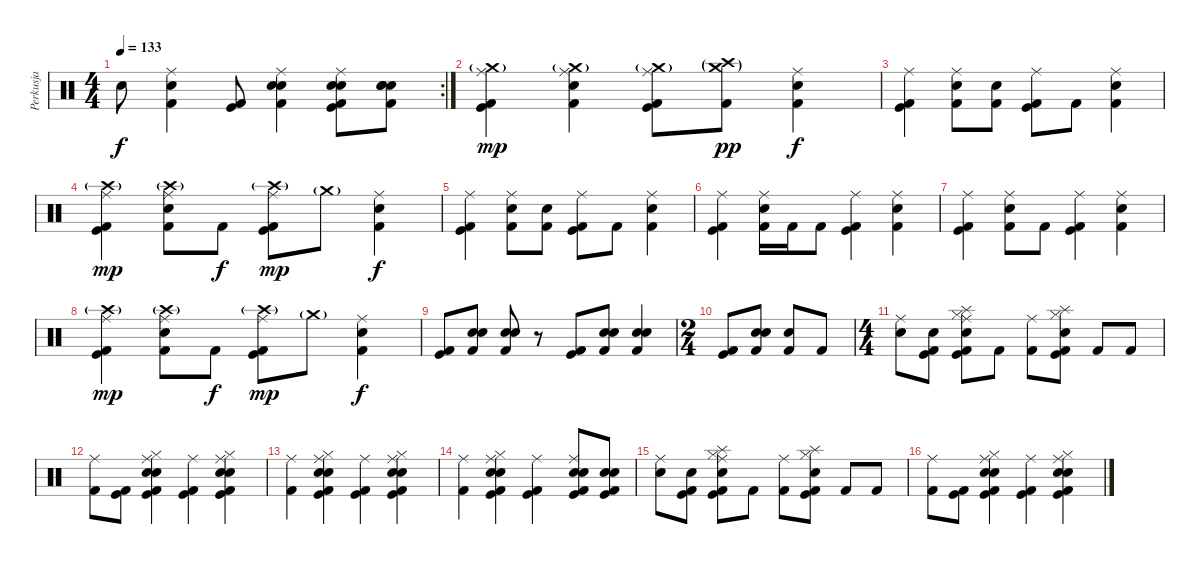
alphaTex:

\track ("Perkusja" "Perkusja") {instrument percussion}
\staff {score}
\articulation defaults
\rc 2
\ts (4 4)
\tempo 133
\clef neutral
\ks c "Snare (hit)"{t}.8{dy f}
("Ride (middle)" "Electric Snare (hit)" "Kick (hit) 2").4 ("Kick (hit)" "Kick (hit) 2").8 ("Ride (middle)" "Electric Snare (hit)" "Electric Snare (hit)" "Kick (hit) 2").4 ("Ride (middle)" "Electric Snare (hit)" "Electric Snare (hit)" "Kick (hit)" "Kick (hit) 2").8 ("Electric Snare (hit)" "Electric Snare (hit)" "Electric Snare (hit)" "Kick (hit) 2").8 |
("Ride (middle)" "Crash medium (hit)"{g} "Kick (hit)" "Kick (hit) 2").4{dy mp} ("Ride (middle)" "Crash medium (hit)"{g} "Electric Snare (hit)" "Kick (hit) 2").4 ("Ride (middle)" "Crash medium (hit)"{g} "Kick (hit)" "Kick (hit) 2").8 ("Crash high (hit)"{g} "Crash medium (hit)"{g} "Kick (hit) 2").8{dy pp} ("Ride (middle)" "Electric Snare (hit)" "Kick (hit) 2").4{dy f} |
("Ride (middle)" "Kick (hit)" "Kick (hit) 2").4 ("Ride (middle)" "Electric Snare (hit)" "Kick (hit) 2").8 ("Electric Snare (hit)" "Kick (hit) 2").8 ("Ride (middle)" "Kick (hit)" "Kick (hit) 2").8 "Kick (hit) 2".8 ("Ride (middle)" "Electric Snare (hit)" "Kick (hit) 2").4 |
("Ride (middle)" "Crash high (hit)"{g} "Kick (hit)" "Kick (hit) 2").4{dy mp} ("Ride (middle)" "Crash high (hit)"{g} "Electric Snare (hit)" "Kick (hit) 2").8 "Kick (hit) 2".8{dy f} ("Ride (middle)" "Crash high (hit)"{g} "Kick (hit)" "Kick (hit) 2").8{dy mp} "Crash medium (hit)"{g}.8 ("Ride (middle)" "Electric Snare (hit)" "Kick (hit) 2").4{dy f} |
("Ride (middle)" "Kick (hit)" "Kick (hit) 2").4 ("Ride (middle)" "Electric Snare (hit)" "Kick (hit) 2").8 ("Electric Snare (hit)" "Kick (hit) 2").8 ("Ride (middle)" "Kick (hit)" "Kick (hit) 2").8 "Kick (hit) 2".8 ("Ride (middle)" "Electric Snare (hit)" "Kick (hit) 2").4 |
("Ride (middle)" "Kick (hit)" "Kick (hit) 2").4 ("Ride (middle)" "Electric Snare (hit)" "Kick (hit) 2").16 "Kick (hit) 2".16 "Kick (hit) 2".8 ("Ride (middle)" "Kick (hit)" "Kick (hit) 2").4 ("Ride (middle)" "Electric Snare (hit)" "Kick (hit) 2").4 |
("Ride (middle)" "Kick (hit)" "Kick (hit) 2").4 ("Ride (middle)" "Electric Snare (hit)" "Kick (hit) 2").8 "Kick (hit) 2".8 ("Ride (middle)" "Kick (hit)" "Kick (hit) 2").4 ("Ride (middle)" "Electric Snare (hit)" "Kick (hit) 2").4 |
("Ride (middle)" "Crash high (hit)"{g} "Kick (hit)" "Kick (hit) 2").4{dy mp} ("Ride (middle)" "Crash high (hit)"{g} "Electric Snare (hit)" "Kick (hit) 2").8 "Kick (hit) 2".8{dy f} ("Ride (middle)" "Crash high (hit)"{g} "Kick (hit)" "Kick (hit) 2").8{dy mp} "Crash medium (hit)"{g}.8 ("Ride (middle)" "Electric Snare (hit)" "Kick (hit) 2").4{dy f} |
("Kick (hit)" "Kick (hit) 2").8 ("Electric Snare (hit)" "Electric Snare (hit)" "Kick (hit) 2").8 ("Electric Snare (hit)" "Electric Snare (hit)" "Kick (hit) 2").8 r.8 ("Kick (hit)" "Kick (hit) 2").8 ("Electric Snare (hit)" "Electric Snare (hit)" "Kick (hit) 2").8 ("Electric Snare (hit)" "Electric Snare (hit)" "Kick (hit) 2").4 |
\ts (2 4)
("Kick (hit) 2" "Kick (hit)").8 ("Electric Snare (hit)" "Electric Snare (hit)" "Kick (hit) 2").8 ("Electric Snare (hit)" "Kick (hit) 2").8 "Kick (hit) 2".8 |
\ts (4 4)
("Ride (middle)" "Electric Snare (hit)").8 ("Electric Snare (hit)" "Kick (hit)" "Kick (hit) 2").8 ("Ride (middle)" "Splash (hit)" "Hi-Hat (closed)" "Kick (hit)" "Snare (hit) 2" "Kick (hit) 2").8 "Kick (hit) 2".8 ("Ride (middle)" "Kick (hit) 2").8 ("Splash (hit)" "Hi-Hat (closed)" "Kick (hit)" "Snare (hit) 2" "Kick (hit) 2").8 "Kick (hit) 2".8 "Kick (hit) 2".8 |
("Ride (middle)" "Kick (hit) 2").8 ("Kick (hit)" "Kick (hit) 2").8 ("Ride (middle)" "Hi-Hat (closed)" "Electric Snare (hit)" "Kick (hit)" "Snare (hit) 2" "Kick (hit) 2").4 ("Ride (middle)" "Kick (hit) 2" "Kick (hit)").4 ("Ride (middle)" "Hi-Hat (closed)" "Electric Snare (hit)" "Kick (hit)" "Snare (hit) 2" "Kick (hit) 2").4 |
("Ride (middle)" "Kick (hit) 2").4 ("Ride (middle)" "Hi-Hat (closed)" "Electric Snare (hit)" "Kick (hit)" "Snare (hit) 2" "Kick (hit) 2").4 ("Ride (middle)" "Kick (hit) 2" "Kick (hit)").4 ("Ride (middle)" "Hi-Hat (closed)" "Electric Snare (hit)" "Kick (hit)" "Snare (hit) 2" "Kick (hit) 2").4 |
("Ride (middle)" "Kick (hit) 2").4 ("Ride (middle)" "Hi-Hat (closed)" "Electric Snare (hit)" "Kick (hit)" "Snare (hit) 2" "Kick (hit) 2").4 ("Ride (middle)" "Kick (hit) 2" "Kick (hit)").4 ("Ride (middle)" "Electric Snare (hit)" "Kick (hit)" "Snare (hit) 2" "Kick (hit) 2").8 ("Electric Snare (hit)" "Kick (hit)" "Snare (hit) 2" "Kick (hit) 2").8 |
("Ride (middle)" "Electric Snare (hit)").8 ("Electric Snare (hit)" "Kick (hit)" "Kick (hit) 2").8 ("Ride (middle)" "Splash (hit)" "Hi-Hat (closed)" "Kick (hit)" "Snare (hit) 2" "Kick (hit) 2").8 "Kick (hit) 2".8 ("Ride (middle)" "Kick (hit) 2").8 ("Splash (hit)" "Hi-Hat (closed)" "Kick (hit)" "Snare (hit) 2" "Kick (hit) 2").8 "Kick (hit) 2".8 "Kick (hit) 2".8 |
("Ride (middle)" "Kick (hit) 2").8 ("Kick (hit)" "Kick (hit) 2").8 ("Ride (middle)" "Hi-Hat (closed)" "Electric Snare (hit)" "Kick (hit)" "Snare (hit) 2" "Kick (hit) 2").4 ("Ride (middle)" "Kick (hit) 2" "Kick (hit)").4 ("Ride (middle)" "Hi-Hat (closed)" "Electric Snare (hit)" "Kick (hit)" "Snare (hit) 2" "Kick (hit) 2").4
